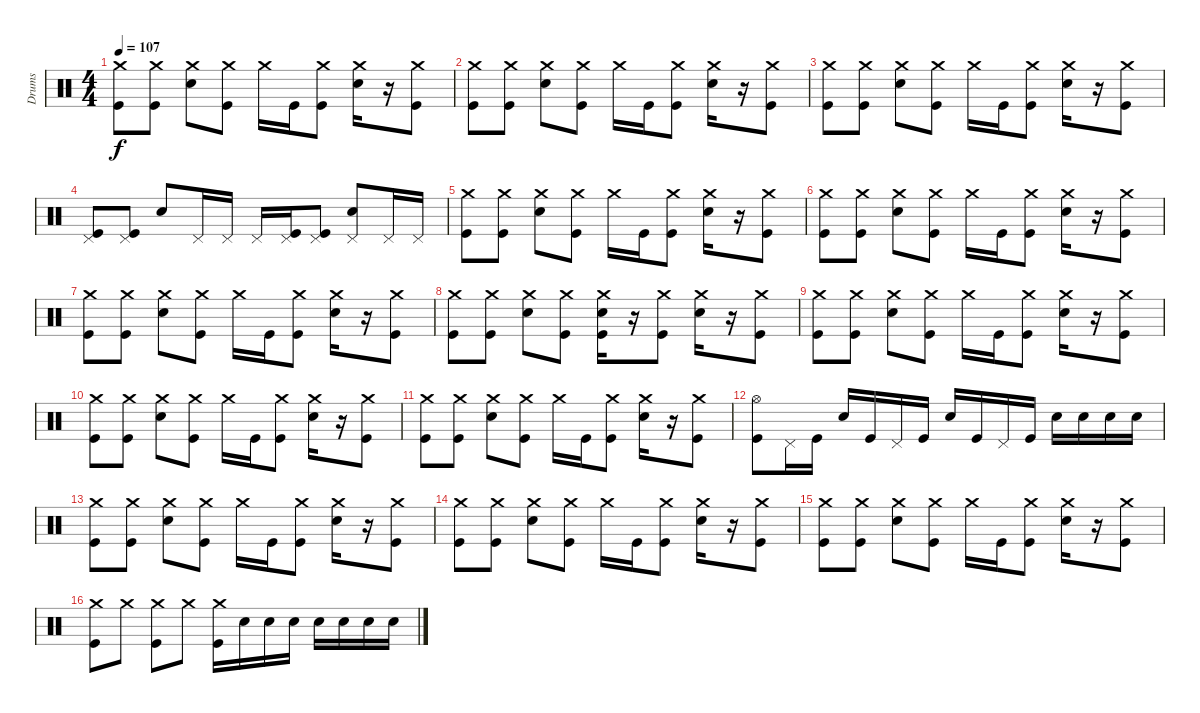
\track ("Drums" "Drums") {instrument percussion}
\staff {score}
\articulation defaults
\ts (4 4)
\tempo 107
\clef neutral
\ks c
("Crash medium (hit)" "Kick (hit)").8{dy f} ("Crash medium (hit)" "Kick (hit)").8 ("Crash medium (hit)" "Electric Snare (hit)").8 ("Crash medium (hit)" "Kick (hit)").8 "Crash medium (hit)".16 "Kick (hit)".16 ("Crash medium (hit)" "Kick (hit)").8 ("Crash medium (hit)" "Electric Snare (hit)").16 r.16 ("Crash medium (hit)" "Kick (hit)").8 |
("Crash medium (hit)" "Kick (hit)").8 ("Crash medium (hit)" "Kick (hit)").8 ("Crash medium (hit)" "Electric Snare (hit)").8 ("Crash medium (hit)" "Kick (hit)").8 "Crash medium (hit)".16 "Kick (hit)".16 ("Crash medium (hit)" "Kick (hit)").8 ("Crash medium (hit)" "Electric Snare (hit)").16 r.16 ("Crash medium (hit)" "Kick (hit)").8 |
("Crash medium (hit)" "Kick (hit)").8 ("Crash medium (hit)" "Kick (hit)").8 ("Crash medium (hit)" "Electric Snare (hit)").8 ("Crash medium (hit)" "Kick (hit)").8 "Crash medium (hit)".16 "Kick (hit)".16 ("Crash medium (hit)" "Kick (hit)").8 ("Crash medium (hit)" "Electric Snare (hit)").16 r.16 ("Crash medium (hit)" "Kick (hit)").8 |
("Pedal Hi-Hat (hit)" "Kick (hit)").8 ("Pedal Hi-Hat (hit)" "Kick (hit)").8 "Electric Snare (hit)".8 "Pedal Hi-Hat (hit)".16 "Pedal Hi-Hat (hit)".16 "Pedal Hi-Hat (hit)".16 ("Pedal Hi-Hat (hit)" "Kick (hit)").16 ("Pedal Hi-Hat (hit)" "Kick (hit)").8 ("Pedal Hi-Hat (hit)" "Electric Snare (hit)").8 "Pedal Hi-Hat (hit)".16 "Pedal Hi-Hat (hit)".16 |
("Crash medium (hit)" "Kick (hit)").8 ("Crash medium (hit)" "Kick (hit)").8 ("Crash medium (hit)" "Electric Snare (hit)").8 ("Crash medium (hit)" "Kick (hit)").8 "Crash medium (hit)".16 "Kick (hit)".16 ("Crash medium (hit)" "Kick (hit)").8 ("Crash medium (hit)" "Electric Snare (hit)").16 r.16 ("Crash medium (hit)" "Kick (hit)").8 |
("Crash medium (hit)" "Kick (hit)").8 ("Crash medium (hit)" "Kick (hit)").8 ("Crash medium (hit)" "Electric Snare (hit)").8 ("Crash medium (hit)" "Kick (hit)").8 "Crash medium (hit)".16 "Kick (hit)".16 ("Crash medium (hit)" "Kick (hit)").8 ("Crash medium (hit)" "Electric Snare (hit)").16 r.16 ("Crash medium (hit)" "Kick (hit)").8 |
("Crash medium (hit)" "Kick (hit)").8 ("Crash medium (hit)" "Kick (hit)").8 ("Crash medium (hit)" "Electric Snare (hit)").8 ("Crash medium (hit)" "Kick (hit)").8 "Crash medium (hit)".16 "Kick (hit)".16 ("Crash medium (hit)" "Kick (hit)").8 ("Crash medium (hit)" "Electric Snare (hit)").16 r.16 ("Crash medium (hit)" "Kick (hit)").8 |
("Crash medium (hit)" "Kick (hit)").8 ("Crash medium (hit)" "Kick (hit)").8 ("Crash medium (hit)" "Electric Snare (hit)").8 ("Crash medium (hit)" "Kick (hit)").8 ("Crash medium (hit)" "Electric Snare (hit)" "Kick (hit)").16 r.16 ("Crash medium (hit)" "Kick (hit)").8 ("Crash medium (hit)" "Electric Snare (hit)").16 r.16 ("Crash medium (hit)" "Kick (hit)").8 |
("Crash medium (hit)" "Kick (hit)").8 ("Crash medium (hit)" "Kick (hit)").8 ("Crash medium (hit)" "Electric Snare (hit)").8 ("Crash medium (hit)" "Kick (hit)").8 "Crash medium (hit)".16 "Kick (hit)".16 ("Crash medium (hit)" "Kick (hit)").8 ("Crash medium (hit)" "Electric Snare (hit)").16 r.16 ("Crash medium (hit)" "Kick (hit)").8 |
("Crash medium (hit)" "Kick (hit)").8 ("Crash medium (hit)" "Kick (hit)").8 ("Crash medium (hit)" "Electric Snare (hit)").8 ("Crash medium (hit)" "Kick (hit)").8 "Crash medium (hit)".16 "Kick (hit)".16 ("Crash medium (hit)" "Kick (hit)").8 ("Crash medium (hit)" "Electric Snare (hit)").16 r.16 ("Crash medium (hit)" "Kick (hit)").8 |
("Crash medium (hit)" "Kick (hit)").8 ("Crash medium (hit)" "Kick (hit)").8 ("Crash medium (hit)" "Electric Snare (hit)").8 ("Crash medium (hit)" "Kick (hit)").8 "Crash medium (hit)".16 "Kick (hit)".16 ("Crash medium (hit)" "Kick (hit)").8 ("Crash medium (hit)" "Electric Snare (hit)").16 r.16 ("Crash medium (hit)" "Kick (hit)").8 |
("Hi-Hat (open)" "Kick (hit)").8 "Pedal Hi-Hat (hit)".16 "Kick (hit)".16 "Electric Snare (hit)".16 "Kick (hit)".16 "Pedal Hi-Hat (hit)".16 "Kick (hit)".16 "Electric Snare (hit)".16 "Kick (hit)".16 "Pedal Hi-Hat (hit)".16 "Kick (hit)".16 "Electric Snare (hit)".16 "Electric Snare (hit)".16 "Electric Snare (hit)".16 "Electric Snare (hit)".16 |
("Crash medium (hit)" "Kick (hit)").8 ("Crash medium (hit)" "Kick (hit)").8 ("Crash medium (hit)" "Electric Snare (hit)").8 ("Crash medium (hit)" "Kick (hit)").8 "Crash medium (hit)".16 "Kick (hit)".16 ("Crash medium (hit)" "Kick (hit)").8 ("Crash medium (hit)" "Electric Snare (hit)").16 r.16 ("Crash medium (hit)" "Kick (hit)").8 |
("Crash medium (hit)" "Kick (hit)").8 ("Crash medium (hit)" "Kick (hit)").8 ("Crash medium (hit)" "Electric Snare (hit)").8 ("Crash medium (hit)" "Kick (hit)").8 "Crash medium (hit)".16 "Kick (hit)".16 ("Crash medium (hit)" "Kick (hit)").8 ("Crash medium (hit)" "Electric Snare (hit)").16 r.16 ("Crash medium (hit)" "Kick (hit)").8 |
("Crash medium (hit)" "Kick (hit)").8 ("Crash medium (hit)" "Kick (hit)").8 ("Crash medium (hit)" "Electric Snare (hit)").8 ("Crash medium (hit)" "Kick (hit)").8 "Crash medium (hit)".16 "Kick (hit)".16 ("Crash medium (hit)" "Kick (hit)").8 ("Crash medium (hit)" "Electric Snare (hit)").16 r.16 ("Crash medium (hit)" "Kick (hit)").8 |
("Crash medium (hit)" "Kick (hit)").8 "Crash medium (hit)".8 ("Crash medium (hit)" "Kick (hit)").8 "Crash medium (hit)".8 ("Crash medium (hit)" "Kick (hit)").16 "Electric Snare (hit)".16 "Electric Snare (hit)".16 "Electric Snare (hit)".16 "Electric Snare (hit)".16 "Electric Snare (hit)".16 "Electric Snare (hit)".16 "Electric Snare (hit)".16
